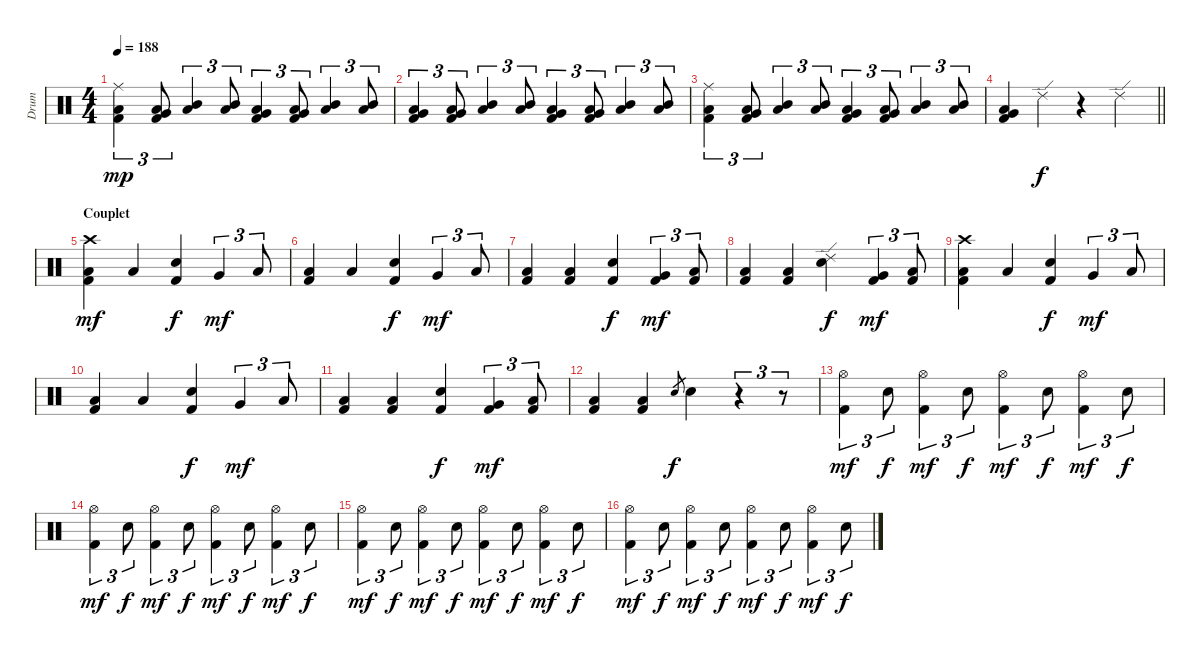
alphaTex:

\track ("Drum" "Drum") {instrument percussion}
\staff {score}
\articulation defaults
\ts (4 4)
\tempo 188
\clef neutral
\ks c
("Kick (hit) 2" "Low Floor Tom (hit)" "Ride (middle)").4{tu (3 2) dy mp} ("Kick (hit) 2" "Low Floor Tom (hit)" "Very Low Tom (hit)").8{tu (3 2)} ("Mid Tom (hit)" "Low Tom (hit)").4{tu (3 2)} ("Mid Tom (hit)" "Low Tom (hit)").8{tu (3 2)} ("Kick (hit) 2" "Low Floor Tom (hit)" "Very Low Tom (hit)").4{tu (3 2)} ("Kick (hit) 2" "Low Floor Tom (hit)" "Very Low Tom (hit)").8{tu (3 2)} ("Mid Tom (hit)" "Low Tom (hit)").4{tu (3 2)} ("Mid Tom (hit)" "Low Tom (hit)").8{tu (3 2)} |
("Kick (hit) 2" "Low Floor Tom (hit)" "Very Low Tom (hit)").4{tu (3 2)} ("Kick (hit) 2" "Low Floor Tom (hit)" "Very Low Tom (hit)").8{tu (3 2)} ("Mid Tom (hit)" "Low Tom (hit)").4{tu (3 2)} ("Mid Tom (hit)" "Low Tom (hit)").8{tu (3 2)} ("Kick (hit) 2" "Low Floor Tom (hit)" "Very Low Tom (hit)").4{tu (3 2)} ("Kick (hit) 2" "Low Floor Tom (hit)" "Very Low Tom (hit)").8{tu (3 2)} ("Mid Tom (hit)" "Low Tom (hit)").4{tu (3 2)} ("Mid Tom (hit)" "Low Tom (hit)").8{tu (3 2)} |
("Kick (hit) 2" "Low Floor Tom (hit)" "Ride (middle)").4{tu (3 2)} ("Kick (hit) 2" "Low Floor Tom (hit)" "Very Low Tom (hit)").8{tu (3 2)} ("Mid Tom (hit)" "Low Tom (hit)").4{tu (3 2)} ("Mid Tom (hit)" "Low Tom (hit)").8{tu (3 2)} ("Kick (hit) 2" "Low Floor Tom (hit)" "Very Low Tom (hit)").4{tu (3 2)} ("Kick (hit) 2" "Low Floor Tom (hit)" "Very Low Tom (hit)").8{tu (3 2)} ("Mid Tom (hit)" "Low Tom (hit)").4{tu (3 2)} ("Mid Tom (hit)" "Low Tom (hit)").8{tu (3 2)} |
\barLineRight lightlight
("Kick (hit) 2" "Low Floor Tom (hit)" "Very Low Tom (hit)").4 "Ride (edge) 2".4{dy f} r.4 "Ride (edge) 2".4 |
\section ("" "Couplet")
("Low Floor Tom (hit)" "Kick (hit) 2" "Crash high (hit)").4{dy mf} "Low Floor Tom (hit)".4 ("Snare (hit) 2" "Kick (hit) 2").4{dy f} "Very Low Tom (hit)".4{tu (3 2) dy mf} "Low Floor Tom (hit)".8{tu (3 2)} |
("Low Floor Tom (hit)" "Kick (hit) 2").4 "Low Floor Tom (hit)".4 ("Snare (hit) 2" "Kick (hit) 2").4{dy f} "Very Low Tom (hit)".4{tu (3 2) dy mf} "Low Floor Tom (hit)".8{tu (3 2)} |
("Low Floor Tom (hit)" "Kick (hit) 2").4 ("Low Floor Tom (hit)" "Kick (hit) 2").4 ("Snare (hit) 2" "Kick (hit) 2").4{dy f} ("Very Low Tom (hit)" "Kick (hit) 2").4{tu (3 2) dy mf} ("Low Floor Tom (hit)" "Kick (hit) 2").8{tu (3 2)} |
("Low Floor Tom (hit)" "Kick (hit) 2").4 ("Low Floor Tom (hit)" "Kick (hit) 2").4 ("Snare (hit) 2" "Ride (edge) 2").4{dy f} ("Very Low Tom (hit)" "Kick (hit) 2").4{tu (3 2) dy mf} ("Low Floor Tom (hit)" "Kick (hit) 2").8{tu (3 2)} |
("Low Floor Tom (hit)" "Kick (hit) 2" "Crash high (hit)").4 "Low Floor Tom (hit)".4 ("Snare (hit) 2" "Kick (hit) 2").4{dy f} "Very Low Tom (hit)".4{tu (3 2) dy mf} "Low Floor Tom (hit)".8{tu (3 2)} |
("Low Floor Tom (hit)" "Kick (hit) 2").4 "Low Floor Tom (hit)".4 ("Snare (hit) 2" "Kick (hit) 2").4{dy f} "Very Low Tom (hit)".4{tu (3 2) dy mf} "Low Floor Tom (hit)".8{tu (3 2)} |
("Low Floor Tom (hit)" "Kick (hit) 2").4 ("Low Floor Tom (hit)" "Kick (hit) 2").4 ("Snare (hit) 2" "Kick (hit) 2").4{dy f} ("Very Low Tom (hit)" "Kick (hit) 2").4{tu (3 2) dy mf} ("Low Floor Tom (hit)" "Kick (hit) 2").8{tu (3 2)} |
("Low Floor Tom (hit)" "Kick (hit) 2").4 ("Low Floor Tom (hit)" "Kick (hit) 2").4 "Snare (hit) 2".8{gr dy f} "Snare (hit) 2".4 r.4{tu (3 2)} r.8{tu (3 2)} |
("Kick (hit) 2" "Hi-Hat (open)").4{tu (3 2) dy mf} "Snare (hit) 2".8{tu (3 2) dy f} ("Kick (hit) 2" "Hi-Hat (open)").4{tu (3 2) dy mf} "Snare (hit) 2".8{tu (3 2) dy f} ("Hi-Hat (open)" "Kick (hit) 2").4{tu (3 2) dy mf} "Snare (hit) 2".8{tu (3 2) dy f} ("Kick (hit) 2" "Hi-Hat (open)").4{tu (3 2) dy mf} "Snare (hit) 2".8{tu (3 2) dy f} |
("Kick (hit) 2" "Hi-Hat (open)").4{tu (3 2) dy mf} "Snare (hit) 2".8{tu (3 2) dy f} ("Kick (hit) 2" "Hi-Hat (open)").4{tu (3 2) dy mf} "Snare (hit) 2".8{tu (3 2) dy f} ("Hi-Hat (open)" "Kick (hit) 2").4{tu (3 2) dy mf} "Snare (hit) 2".8{tu (3 2) dy f} ("Kick (hit) 2" "Hi-Hat (open)").4{tu (3 2) dy mf} "Snare (hit) 2".8{tu (3 2) dy f} |
("Kick (hit) 2" "Hi-Hat (open)").4{tu (3 2) dy mf} "Snare (hit) 2".8{tu (3 2) dy f} ("Kick (hit) 2" "Hi-Hat (open)").4{tu (3 2) dy mf} "Snare (hit) 2".8{tu (3 2) dy f} ("Hi-Hat (open)" "Kick (hit) 2").4{tu (3 2) dy mf} "Snare (hit) 2".8{tu (3 2) dy f} ("Kick (hit) 2" "Hi-Hat (open)").4{tu (3 2) dy mf} "Snare (hit) 2".8{tu (3 2) dy f} |
("Kick (hit) 2" "Hi-Hat (open)").4{tu (3 2) dy mf} "Snare (hit) 2".8{tu (3 2) dy f} ("Kick (hit) 2" "Hi-Hat (open)").4{tu (3 2) dy mf} "Snare (hit) 2".8{tu (3 2) dy f} ("Hi-Hat (open)" "Kick (hit) 2").4{tu (3 2) dy mf} "Snare (hit) 2".8{tu (3 2) dy f} ("Kick (hit) 2" "Hi-Hat (open)").4{tu (3 2) dy mf} "Snare (hit) 2".8{tu (3 2) dy f}
